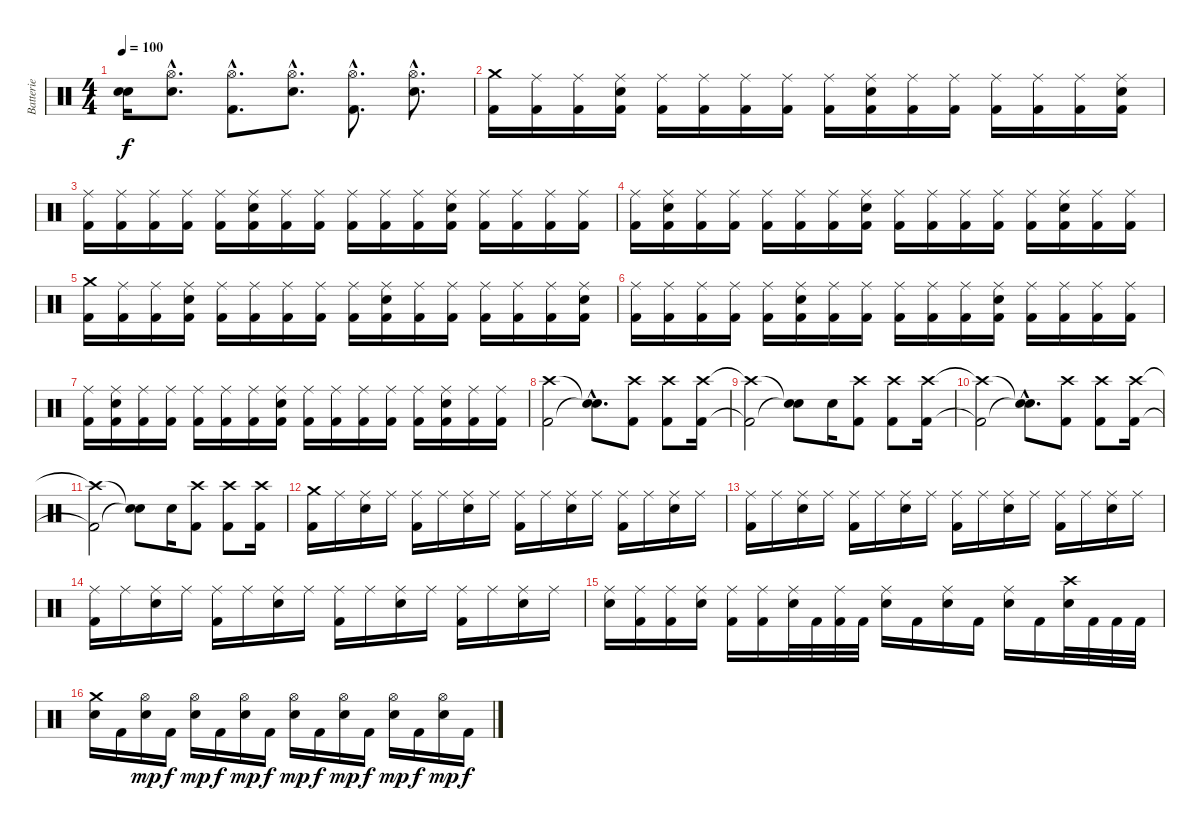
\track ("Batterie" "Batterie") {instrument percussion}
\staff {score}
\articulation defaults
\ts (4 4)
\tempo 100
\clef neutral
\ks c
("Snare (hit)"{t} "Snare (hit)"{t}).16{dy f} ("Hi-Hat (open)"{hac} "Electric Snare (hit)"{hac}).8{d} ("Hi-Hat (open)"{hac} "Kick (hit) 2"{hac}).8{d} ("Hi-Hat (open)"{hac} "Electric Snare (hit)"{hac}).8{d} ("Hi-Hat (open)"{hac} "Kick (hit) 2"{hac}).8{d} ("Hi-Hat (open)"{hac} "Electric Snare (hit)"{hac}).8{d} |
("Crash medium (hit)" "Kick (hit) 2").16 ("Ride (middle)" "Kick (hit) 2").16 ("Ride (middle)" "Kick (hit) 2").16 ("Ride (middle)" "Electric Snare (hit)" "Kick (hit) 2").16 ("Ride (middle)" "Kick (hit) 2").16 ("Ride (middle)" "Kick (hit) 2").16 ("Ride (middle)" "Kick (hit) 2").16 ("Ride (middle)" "Kick (hit) 2").16 ("Ride (middle)" "Kick (hit) 2").16 ("Ride (middle)" "Electric Snare (hit)" "Kick (hit) 2").16 ("Ride (middle)" "Kick (hit) 2").16 ("Ride (middle)" "Kick (hit) 2").16 ("Ride (middle)" "Kick (hit) 2").16 ("Ride (middle)" "Kick (hit) 2").16 ("Ride (middle)" "Kick (hit) 2").16 ("Ride (middle)" "Electric Snare (hit)" "Kick (hit) 2").16 |
("Ride (middle)" "Kick (hit) 2").16 ("Ride (middle)" "Kick (hit) 2").16 ("Ride (middle)" "Kick (hit) 2").16 ("Ride (middle)" "Kick (hit) 2").16 ("Ride (middle)" "Kick (hit) 2").16 ("Ride (middle)" "Electric Snare (hit)" "Kick (hit) 2").16 ("Ride (middle)" "Kick (hit) 2").16 ("Ride (middle)" "Kick (hit) 2").16 ("Ride (middle)" "Kick (hit) 2").16 ("Ride (middle)" "Kick (hit) 2").16 ("Ride (middle)" "Kick (hit) 2").16 ("Ride (middle)" "Electric Snare (hit)" "Kick (hit) 2").16 ("Ride (middle)" "Kick (hit) 2").16 ("Ride (middle)" "Kick (hit) 2").16 ("Ride (middle)" "Kick (hit) 2").16 ("Ride (middle)" "Kick (hit) 2").16 |
("Ride (middle)" "Kick (hit) 2").16 ("Ride (middle)" "Electric Snare (hit)" "Kick (hit) 2").16 ("Ride (middle)" "Kick (hit) 2").16 ("Ride (middle)" "Kick (hit) 2").16 ("Ride (middle)" "Kick (hit) 2").16 ("Ride (middle)" "Kick (hit) 2").16 ("Ride (middle)" "Kick (hit) 2").16 ("Ride (middle)" "Electric Snare (hit)" "Kick (hit) 2").16 ("Ride (middle)" "Kick (hit) 2").16 ("Ride (middle)" "Kick (hit) 2").16 ("Ride (middle)" "Kick (hit) 2").16 ("Ride (middle)" "Kick (hit) 2").16 ("Ride (middle)" "Kick (hit) 2").16 ("Ride (middle)" "Electric Snare (hit)" "Kick (hit) 2").16 ("Ride (middle)" "Kick (hit) 2").16 ("Ride (middle)" "Kick (hit) 2").16 |
("Crash medium (hit)" "Kick (hit) 2").16 ("Ride (middle)" "Kick (hit) 2").16 ("Ride (middle)" "Kick (hit) 2").16 ("Ride (middle)" "Electric Snare (hit)" "Kick (hit) 2").16 ("Ride (middle)" "Kick (hit) 2").16 ("Ride (middle)" "Kick (hit) 2").16 ("Ride (middle)" "Kick (hit) 2").16 ("Ride (middle)" "Kick (hit) 2").16 ("Ride (middle)" "Kick (hit) 2").16 ("Ride (middle)" "Electric Snare (hit)" "Kick (hit) 2").16 ("Ride (middle)" "Kick (hit) 2").16 ("Ride (middle)" "Kick (hit) 2").16 ("Ride (middle)" "Kick (hit) 2").16 ("Ride (middle)" "Kick (hit) 2").16 ("Ride (middle)" "Kick (hit) 2").16 ("Ride (middle)" "Electric Snare (hit)" "Kick (hit) 2").16 |
("Ride (middle)" "Kick (hit) 2").16 ("Ride (middle)" "Kick (hit) 2").16 ("Ride (middle)" "Kick (hit) 2").16 ("Ride (middle)" "Kick (hit) 2").16 ("Ride (middle)" "Kick (hit) 2").16 ("Ride (middle)" "Electric Snare (hit)" "Kick (hit) 2").16 ("Ride (middle)" "Kick (hit) 2").16 ("Ride (middle)" "Kick (hit) 2").16 ("Ride (middle)" "Kick (hit) 2").16 ("Ride (middle)" "Kick (hit) 2").16 ("Ride (middle)" "Kick (hit) 2").16 ("Ride (middle)" "Electric Snare (hit)" "Kick (hit) 2").16 ("Ride (middle)" "Kick (hit) 2").16 ("Ride (middle)" "Kick (hit) 2").16 ("Ride (middle)" "Kick (hit) 2").16 ("Ride (middle)" "Kick (hit) 2").16 |
("Ride (middle)" "Kick (hit) 2").16 ("Ride (middle)" "Electric Snare (hit)" "Kick (hit) 2").16 ("Ride (middle)" "Kick (hit) 2").16 ("Ride (middle)" "Kick (hit) 2").16 ("Ride (middle)" "Kick (hit) 2").16 ("Ride (middle)" "Kick (hit) 2").16 ("Ride (middle)" "Kick (hit) 2").16 ("Ride (middle)" "Electric Snare (hit)" "Kick (hit) 2").16 ("Ride (middle)" "Kick (hit) 2").16 ("Ride (middle)" "Kick (hit) 2").16 ("Ride (middle)" "Kick (hit) 2").16 ("Ride (middle)" "Kick (hit) 2").16 ("Ride (middle)" "Kick (hit) 2").16 ("Ride (middle)" "Electric Snare (hit)" "Kick (hit) 2").16 ("Ride (middle)" "Kick (hit) 2").16 ("Ride (middle)" "Kick (hit) 2").16 |
("Crash high (hit)" "Kick (hit) 2").2 ("Snare (hit)"{hac t} "Snare (hit)"{hac t}).8{d} ("Crash high (hit)" "Kick (hit) 2").8 ("Crash high (hit)" "Kick (hit) 2").8 ("Crash high (hit)" "Kick (hit) 2").16 |
("Crash high (hit)"{t} "Kick (hit) 2"{t}).2 ("Snare (hit)"{t} "Snare (hit)"{t}).8 "Electric Snare (hit)".16 ("Crash high (hit)" "Kick (hit) 2").8 ("Crash high (hit)" "Kick (hit) 2").8 ("Crash high (hit)" "Kick (hit) 2").16 |
("Crash high (hit)"{t} "Kick (hit) 2"{t}).2 ("Snare (hit)"{hac t} "Snare (hit)"{hac t}).8{d} ("Crash high (hit)" "Kick (hit) 2").8 ("Crash high (hit)" "Kick (hit) 2").8 ("Crash high (hit)" "Kick (hit) 2").16 |
("Crash high (hit)"{t} "Kick (hit) 2"{t}).2 ("Snare (hit)"{t} "Snare (hit)"{t}).8 "Electric Snare (hit)".16 ("Crash high (hit)" "Kick (hit) 2").8 ("Crash high (hit)" "Kick (hit) 2").8 ("Crash high (hit)" "Kick (hit) 2").16 |
("Crash medium (hit)" "Kick (hit) 2").16 "Ride (middle)".16 ("Ride (middle)" "Electric Snare (hit)").16 "Ride (middle)".16 ("Ride (middle)" "Kick (hit) 2").16 "Ride (middle)".16 ("Ride (middle)" "Electric Snare (hit)").16 "Ride (middle)".16 ("Ride (middle)" "Kick (hit) 2").16 "Ride (middle)".16 ("Ride (middle)" "Electric Snare (hit)").16 "Ride (middle)".16 ("Ride (middle)" "Kick (hit) 2").16 "Ride (middle)".16 ("Ride (middle)" "Electric Snare (hit)").16 "Ride (middle)".16 |
("Ride (middle)" "Kick (hit) 2").16 "Ride (middle)".16 ("Ride (middle)" "Electric Snare (hit)").16 "Ride (middle)".16 ("Ride (middle)" "Kick (hit) 2").16 "Ride (middle)".16 ("Ride (middle)" "Electric Snare (hit)").16 "Ride (middle)".16 ("Ride (middle)" "Kick (hit) 2").16 "Ride (middle)".16 ("Ride (middle)" "Electric Snare (hit)").16 "Ride (middle)".16 ("Ride (middle)" "Kick (hit) 2").16 "Ride (middle)".16 ("Ride (middle)" "Electric Snare (hit)").16 "Ride (middle)".16 |
("Ride (middle)" "Kick (hit) 2").16 "Ride (middle)".16 ("Ride (middle)" "Electric Snare (hit)").16 "Ride (middle)".16 ("Ride (middle)" "Kick (hit) 2").16 "Ride (middle)".16 ("Ride (middle)" "Electric Snare (hit)").16 "Ride (middle)".16 ("Ride (middle)" "Kick (hit) 2").16 "Ride (middle)".16 ("Ride (middle)" "Electric Snare (hit)").16 "Ride (middle)".16 ("Ride (middle)" "Kick (hit) 2").16 "Ride (middle)".16 ("Ride (middle)" "Electric Snare (hit)").16 "Ride (middle)".16 |
("Ride (middle)" "Electric Snare (hit)").16 ("Ride (middle)" "Kick (hit) 2").16 ("Ride (middle)" "Kick (hit) 2").16 ("Ride (middle)" "Electric Snare (hit)").16 ("Ride (middle)" "Kick (hit) 2").16 ("Ride (middle)" "Kick (hit) 2").16 ("Ride (middle)" "Electric Snare (hit)").32 "Kick (hit) 2".32 ("Ride (middle)" "Kick (hit) 2").32 "Kick (hit) 2".32 ("Ride (middle)" "Electric Snare (hit)").16 "Kick (hit) 2".16 ("Ride (middle)" "Electric Snare (hit)").16 "Kick (hit) 2".16 ("Ride (middle)" "Electric Snare (hit)").16 "Kick (hit) 2".16 ("Crash high (hit)" "Electric Snare (hit)").32 "Kick (hit) 2".32 "Kick (hit) 2".32 "Kick (hit) 2".32 |
("Crash medium (hit)" "Electric Snare (hit)").16 "Kick (hit) 2".16 ("Hi-Hat (open)" "Electric Snare (hit)").16{dy mp} "Kick (hit) 2".16{dy f} ("Hi-Hat (open)" "Electric Snare (hit)").16{dy mp} "Kick (hit) 2".16{dy f} ("Hi-Hat (open)" "Electric Snare (hit)").16{dy mp} "Kick (hit) 2".16{dy f} ("Hi-Hat (open)" "Electric Snare (hit)").16{dy mp} "Kick (hit) 2".16{dy f} ("Hi-Hat (open)" "Electric Snare (hit)").16{dy mp} "Kick (hit) 2".16{dy f} ("Hi-Hat (open)" "Electric Snare (hit)").16{dy mp} "Kick (hit) 2".16{dy f} ("Hi-Hat (open)" "Electric Snare (hit)").16{dy mp} "Kick (hit) 2".16{dy f}
